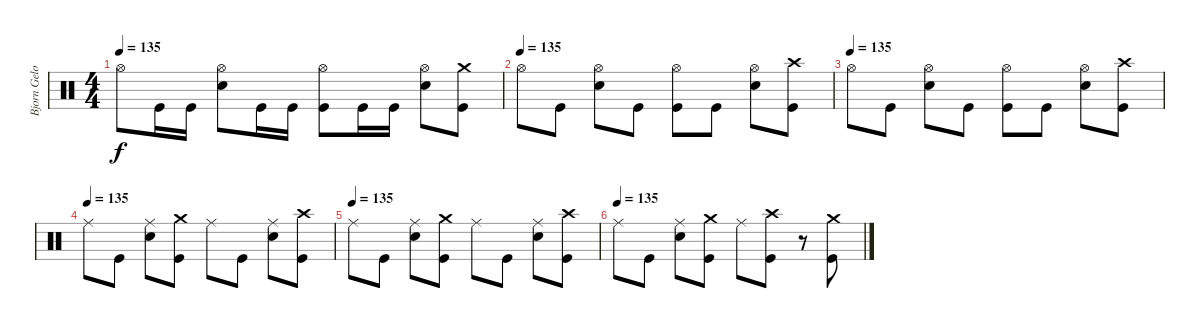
\track ("Bjorn Gelotte-Drum" "Bjorn Gelo") {instrument percussion}
\staff {score}
\articulation defaults
\ts (4 4)
\tempo 135
\clef neutral
\ks c "Hi-Hat (open)".8{dy f} "Kick (hit)".16 "Kick (hit)".16
("Electric Snare (hit)" "Hi-Hat (open)").8 "Kick (hit)".16 "Kick (hit)".16 ("Kick (hit)" "Hi-Hat (open)").8 "Kick (hit)".16 "Kick (hit)".16 ("Electric Snare (hit)" "Hi-Hat (open)").8 ("Kick (hit)" "Crash medium (hit)").8 |
\tempo (135)
"Hi-Hat (open)".8 "Kick (hit)".8 ("Electric Snare (hit)" "Hi-Hat (open)").8 "Kick (hit)".8 ("Kick (hit)" "Hi-Hat (open)").8 "Kick (hit)".8 ("Electric Snare (hit)" "Hi-Hat (open)").8 ("Kick (hit)" "Crash high (hit)").8 |
\tempo (135)
"Hi-Hat (open)".8 "Kick (hit)".8 ("Electric Snare (hit)" "Hi-Hat (open)").8 "Kick (hit)".8 ("Kick (hit)" "Hi-Hat (open)").8 "Kick (hit)".8 ("Electric Snare (hit)" "Hi-Hat (open)").8 ("Kick (hit)" "Crash high (hit)").8 |
\tempo (135)
"Ride (middle)".8 "Kick (hit)".8 ("Electric Snare (hit)" "Ride (middle)").8 ("Kick (hit)" "Crash medium (hit)").8 "Ride (middle)".8 "Kick (hit)".8 ("Electric Snare (hit)" "Ride (middle)").8 ("Kick (hit)" "Crash high (hit)").8 |
\tempo (135)
"Ride (middle)".8 "Kick (hit)".8 ("Electric Snare (hit)" "Ride (middle)").8 ("Kick (hit)" "Crash medium (hit)").8 "Ride (middle)".8 "Kick (hit)".8 ("Electric Snare (hit)" "Ride (middle)").8 ("Kick (hit)" "Crash high (hit)").8 |
\tempo (135)
"Ride (middle)".8 "Kick (hit)".8 ("Electric Snare (hit)" "Ride (middle)").8 ("Kick (hit)" "Crash medium (hit)").8 "Ride (middle)".8 ("Kick (hit)" "Crash high (hit)").8 r.8 ("Kick (hit)" "Crash medium (hit)").8
